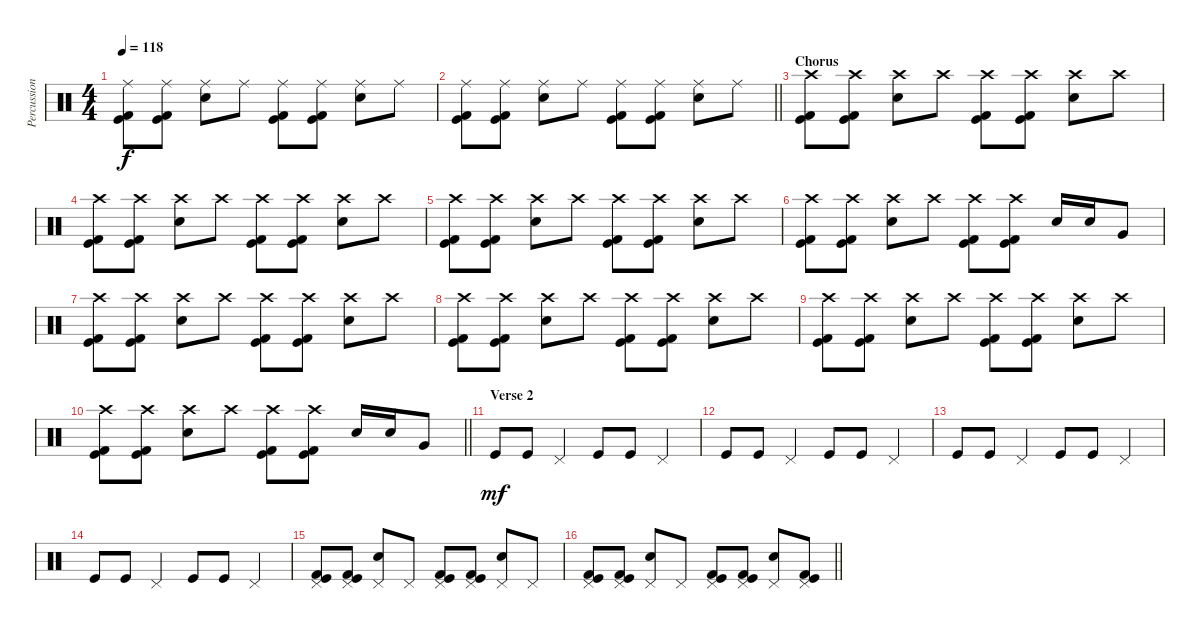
\track ("Percussion" "Percussion") {instrument percussion}
\staff {score}
\articulation defaults
\ts (4 4)
\tempo 118
\clef neutral
\ks c
("Ride (middle)" "Kick (hit) 2" "Kick (hit)").8{dy f} ("Ride (middle)" "Kick (hit) 2" "Kick (hit)").8 ("Ride (middle)" "Electric Snare (hit)").8 "Ride (middle)".8 ("Ride (middle)" "Kick (hit) 2" "Kick (hit)").8 ("Ride (middle)" "Kick (hit) 2" "Kick (hit)").8 ("Ride (middle)" "Electric Snare (hit)").8 "Ride (middle)".8 |
\barLineRight lightlight
("Ride (middle)" "Kick (hit) 2" "Kick (hit)").8 ("Ride (middle)" "Kick (hit) 2" "Kick (hit)").8 ("Ride (middle)" "Electric Snare (hit)").8 "Ride (middle)".8 ("Ride (middle)" "Kick (hit) 2" "Kick (hit)").8 ("Ride (middle)" "Kick (hit) 2" "Kick (hit)").8 ("Ride (middle)" "Electric Snare (hit)").8 "Ride (middle)".8 |
\section ("" "Chorus")
("Crash high (hit)" "Kick (hit) 2" "Kick (hit)").8 ("Crash high (hit)" "Kick (hit) 2" "Kick (hit)").8 ("Crash high (hit)" "Electric Snare (hit)").8 "Crash high (hit)".8 ("Crash high (hit)" "Kick (hit) 2" "Kick (hit)").8 ("Crash high (hit)" "Kick (hit) 2" "Kick (hit)").8 ("Crash high (hit)" "Electric Snare (hit)").8 "Crash high (hit)".8 |
("Crash high (hit)" "Kick (hit) 2" "Kick (hit)").8 ("Crash high (hit)" "Kick (hit) 2" "Kick (hit)").8 ("Crash high (hit)" "Electric Snare (hit)").8 "Crash high (hit)".8 ("Crash high (hit)" "Kick (hit) 2" "Kick (hit)").8 ("Crash high (hit)" "Kick (hit) 2" "Kick (hit)").8 ("Crash high (hit)" "Electric Snare (hit)").8 "Crash high (hit)".8 |
("Crash high (hit)" "Kick (hit) 2" "Kick (hit)").8 ("Crash high (hit)" "Kick (hit) 2" "Kick (hit)").8 ("Crash high (hit)" "Electric Snare (hit)").8 "Crash high (hit)".8 ("Crash high (hit)" "Kick (hit) 2" "Kick (hit)").8 ("Crash high (hit)" "Kick (hit) 2" "Kick (hit)").8 ("Crash high (hit)" "Electric Snare (hit)").8 "Crash high (hit)".8 |
("Crash high (hit)" "Kick (hit) 2" "Kick (hit)").8 ("Crash high (hit)" "Kick (hit) 2" "Kick (hit)").8 ("Crash high (hit)" "Electric Snare (hit)").8 "Crash high (hit)".8 ("Crash high (hit)" "Kick (hit) 2" "Kick (hit)").8 ("Crash high (hit)" "Kick (hit) 2" "Kick (hit)").8 "Electric Snare (hit)".16 "Electric Snare (hit)".16 "Very Low Tom (hit)".8 |
("Crash high (hit)" "Kick (hit) 2" "Kick (hit)").8 ("Crash high (hit)" "Kick (hit) 2" "Kick (hit)").8 ("Crash high (hit)" "Electric Snare (hit)").8 "Crash high (hit)".8 ("Crash high (hit)" "Kick (hit) 2" "Kick (hit)").8 ("Crash high (hit)" "Kick (hit) 2" "Kick (hit)").8 ("Crash high (hit)" "Electric Snare (hit)").8 "Crash high (hit)".8 |
("Crash high (hit)" "Kick (hit) 2" "Kick (hit)").8 ("Crash high (hit)" "Kick (hit) 2" "Kick (hit)").8 ("Crash high (hit)" "Electric Snare (hit)").8 "Crash high (hit)".8 ("Crash high (hit)" "Kick (hit) 2" "Kick (hit)").8 ("Crash high (hit)" "Kick (hit) 2" "Kick (hit)").8 ("Crash high (hit)" "Electric Snare (hit)").8 "Crash high (hit)".8 |
("Crash high (hit)" "Kick (hit) 2" "Kick (hit)").8 ("Crash high (hit)" "Kick (hit) 2" "Kick (hit)").8 ("Crash high (hit)" "Electric Snare (hit)").8 "Crash high (hit)".8 ("Crash high (hit)" "Kick (hit) 2" "Kick (hit)").8 ("Crash high (hit)" "Kick (hit) 2" "Kick (hit)").8 ("Crash high (hit)" "Electric Snare (hit)").8 "Crash high (hit)".8 |
\barLineRight lightlight
("Crash high (hit)" "Kick (hit) 2" "Kick (hit)").8 ("Crash high (hit)" "Kick (hit) 2" "Kick (hit)").8 ("Crash high (hit)" "Electric Snare (hit)").8 "Crash high (hit)".8 ("Crash high (hit)" "Kick (hit) 2" "Kick (hit)").8 ("Crash high (hit)" "Kick (hit) 2" "Kick (hit)").8 "Electric Snare (hit)".16 "Electric Snare (hit)".16 "Very Low Tom (hit)".8 |
\section ("" "Verse 2")
"Kick (hit)".8{dy mf} "Kick (hit)".8 "Pedal Hi-Hat (hit)".4 "Kick (hit)".8 "Kick (hit)".8 "Pedal Hi-Hat (hit)".4 |
"Kick (hit)".8 "Kick (hit)".8 "Pedal Hi-Hat (hit)".4 "Kick (hit)".8 "Kick (hit)".8 "Pedal Hi-Hat (hit)".4 |
"Kick (hit)".8 "Kick (hit)".8 "Pedal Hi-Hat (hit)".4 "Kick (hit)".8 "Kick (hit)".8 "Pedal Hi-Hat (hit)".4 |
"Kick (hit)".8 "Kick (hit)".8 "Pedal Hi-Hat (hit)".4 "Kick (hit)".8 "Kick (hit)".8 "Pedal Hi-Hat (hit)".4 |
("Pedal Hi-Hat (hit)" "Kick (hit) 2" "Kick (hit)").8 ("Pedal Hi-Hat (hit)" "Kick (hit) 2" "Kick (hit)").8 ("Pedal Hi-Hat (hit)" "Electric Snare (hit)").8 "Pedal Hi-Hat (hit)".8 ("Pedal Hi-Hat (hit)" "Kick (hit) 2" "Kick (hit)").8 ("Pedal Hi-Hat (hit)" "Kick (hit) 2" "Kick (hit)").8 ("Pedal Hi-Hat (hit)" "Electric Snare (hit)").8 "Pedal Hi-Hat (hit)".8 |
\barLineRight lightlight
("Pedal Hi-Hat (hit)" "Kick (hit) 2" "Kick (hit)").8 ("Pedal Hi-Hat (hit)" "Kick (hit) 2" "Kick (hit)").8 ("Pedal Hi-Hat (hit)" "Electric Snare (hit)").8 "Pedal Hi-Hat (hit)".8 ("Pedal Hi-Hat (hit)" "Kick (hit) 2" "Kick (hit)").8 ("Pedal Hi-Hat (hit)" "Kick (hit) 2" "Kick (hit)").8 ("Pedal Hi-Hat (hit)" "Electric Snare (hit)").8 ("Pedal Hi-Hat (hit)" "Kick (hit) 2" "Kick (hit)").8
